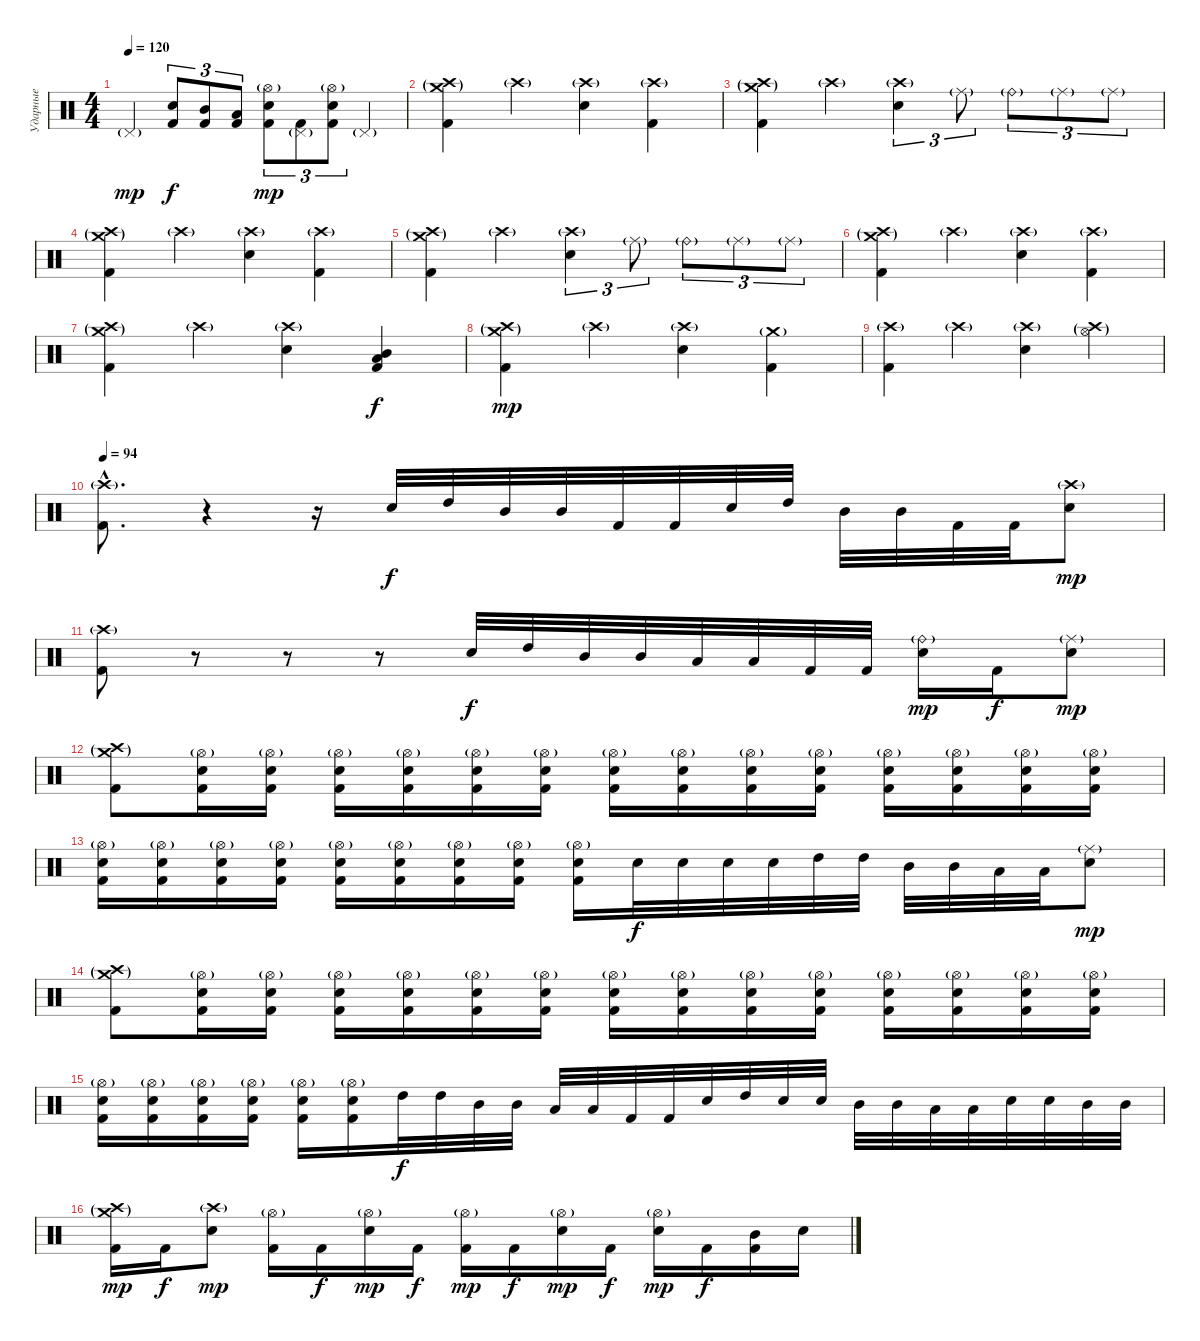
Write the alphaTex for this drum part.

\track ("Ударные" "Ударные") {instrument percussion}
\staff {score}
\articulation defaults
\ts (4 4)
\tempo 120
\clef neutral
\ks c "Pedal Hi-Hat (hit)"{g}.4{dy mp}
("Electric Snare (hit)" "Kick (hit) 2").8{tu (3 2) dy f} ("Mid Tom (hit)" "Kick (hit) 2").8{tu (3 2)} ("Low Tom (hit)" "Kick (hit) 2").8{tu (3 2)} ("Hi-Hat (open)"{g} "Electric Snare (hit)" "Kick (hit) 2").8{tu (3 2) dy mp} ("Pedal Hi-Hat (hit)"{g} "Kick (hit) 2").8{tu (3 2)} ("Hi-Hat (open)"{g} "Electric Snare (hit)" "Kick (hit) 2").8{tu (3 2)} "Pedal Hi-Hat (hit)"{g}.4 |
("Crash high (hit)"{g} "Crash medium (hit)"{g} "Kick (hit) 2").4 "Crash high (hit)"{g}.4 ("Crash high (hit)"{g} "Electric Snare (hit)").4 ("Crash high (hit)"{g} "Kick (hit) 2").4 |
("Crash high (hit)"{g} "Crash medium (hit)"{g} "Kick (hit) 2").4 "Crash high (hit)"{g}.4 ("Crash high (hit)"{g} "Electric Snare (hit)").4{tu (3 2)} "Ride (middle)"{g}.8{tu (3 2)} "Ride (bell)"{g}.8{tu (3 2)} "Ride (middle)"{g}.8{tu (3 2)} "Ride (middle)"{g}.8{tu (3 2)} |
("Crash high (hit)"{g} "Crash medium (hit)"{g} "Kick (hit) 2").4 "Crash high (hit)"{g}.4 ("Crash high (hit)"{g} "Electric Snare (hit)").4 ("Crash high (hit)"{g} "Kick (hit) 2").4 |
("Crash high (hit)"{g} "Crash medium (hit)"{g} "Kick (hit) 2").4 "Crash high (hit)"{g}.4 ("Crash high (hit)"{g} "Electric Snare (hit)").4{tu (3 2)} "Ride (middle)"{g}.8{tu (3 2)} "Ride (bell)"{g}.8{tu (3 2)} "Ride (middle)"{g}.8{tu (3 2)} "Ride (middle)"{g}.8{tu (3 2)} |
("Crash high (hit)"{g} "Crash medium (hit)"{g} "Kick (hit) 2").4 "Crash high (hit)"{g}.4 ("Crash high (hit)"{g} "Electric Snare (hit)").4 ("Crash high (hit)"{g} "Kick (hit) 2").4 |
("Crash high (hit)"{g} "Crash medium (hit)"{g} "Kick (hit) 2").4 "Crash high (hit)"{g}.4 ("Crash high (hit)"{g} "Electric Snare (hit)").4 ("Low Tom (hit)" "Mid Tom (hit)" "Kick (hit) 2").4{dy f} |
("Crash high (hit)"{g} "Crash medium (hit)"{g} "Kick (hit) 2").4{dy mp} "Crash high (hit)"{g}.4 ("Crash high (hit)"{g} "Electric Snare (hit)").4 ("Crash medium (hit)"{g} "Kick (hit) 2").4 |
("Crash high (hit)"{g} "Kick (hit) 2").4 "Crash high (hit)"{g}.4 ("Crash high (hit)"{g} "Electric Snare (hit)").4 ("Crash high (hit)"{g} "Hi-Hat (open)"{g}).4 |
\tempo 94
("Crash high (hit)"{g hac} "Kick (hit) 2"{hac}).8{d} r.4{volume 0} r.16 "Electric Snare (hit)".32{dy f volume 16} "High Tom (hit)".32 "Mid Tom (hit)".32 "Mid Tom (hit)".32 "Kick (hit) 2".32 "Kick (hit) 2".32 "Electric Snare (hit)".32 "High Tom (hit)".32 "Mid Tom (hit)".32 "Mid Tom (hit)".32 "Kick (hit) 2".32 "Kick (hit) 2".32 ("Crash high (hit)"{g} "Electric Snare (hit)").8{dy mp} |
("Crash high (hit)"{g} "Kick (hit) 2").8 r.8{volume 0} r.8 r.8 "Electric Snare (hit)".32{dy f volume 16} "High Tom (hit)".32 "Mid Tom (hit)".32 "Mid Tom (hit)".32 "Low Tom (hit)".32 "Low Tom (hit)".32 "Kick (hit) 2".32 "Kick (hit) 2".32 ("Ride (bell)"{g} "Electric Snare (hit)").16{dy mp} "Kick (hit) 2".16{dy f} ("Ride (middle)"{g} "Electric Snare (hit)").8{dy mp} |
("Crash high (hit)"{g} "Crash medium (hit)"{g} "Kick (hit) 2").8 ("Hi-Hat (open)"{g} "Electric Snare (hit)" "Kick (hit) 2").16 ("Hi-Hat (open)"{g} "Electric Snare (hit)" "Kick (hit) 2").16 ("Hi-Hat (open)"{g} "Electric Snare (hit)" "Kick (hit) 2").16 ("Hi-Hat (open)"{g} "Electric Snare (hit)" "Kick (hit) 2").16 ("Hi-Hat (open)"{g} "Electric Snare (hit)" "Kick (hit) 2").16 ("Hi-Hat (open)"{g} "Electric Snare (hit)" "Kick (hit) 2").16 ("Hi-Hat (open)"{g} "Electric Snare (hit)" "Kick (hit) 2").16 ("Hi-Hat (open)"{g} "Electric Snare (hit)" "Kick (hit) 2").16 ("Hi-Hat (open)"{g} "Electric Snare (hit)" "Kick (hit) 2").16 ("Hi-Hat (open)"{g} "Electric Snare (hit)" "Kick (hit) 2").16 ("Hi-Hat (open)"{g} "Electric Snare (hit)" "Kick (hit) 2").16 ("Hi-Hat (open)"{g} "Electric Snare (hit)" "Kick (hit) 2").16 ("Hi-Hat (open)"{g} "Electric Snare (hit)" "Kick (hit) 2").16 ("Hi-Hat (open)"{g} "Electric Snare (hit)" "Kick (hit) 2").16 |
("Hi-Hat (open)"{g} "Electric Snare (hit)" "Kick (hit) 2").16 ("Hi-Hat (open)"{g} "Electric Snare (hit)" "Kick (hit) 2").16 ("Hi-Hat (open)"{g} "Electric Snare (hit)" "Kick (hit) 2").16 ("Hi-Hat (open)"{g} "Electric Snare (hit)" "Kick (hit) 2").16 ("Hi-Hat (open)"{g} "Electric Snare (hit)" "Kick (hit) 2").16 ("Hi-Hat (open)"{g} "Electric Snare (hit)" "Kick (hit) 2").16 ("Hi-Hat (open)"{g} "Electric Snare (hit)" "Kick (hit) 2").16 ("Hi-Hat (open)"{g} "Electric Snare (hit)" "Kick (hit) 2").16 ("Hi-Hat (open)"{g} "Electric Snare (hit)" "Kick (hit) 2").16 "Electric Snare (hit)".32{dy f} "Electric Snare (hit)".32 "Electric Snare (hit)".32 "Electric Snare (hit)".32 "High Tom (hit)".32 "High Tom (hit)".32 "Mid Tom (hit)".32 "Mid Tom (hit)".32 "Low Tom (hit)".32 "Low Tom (hit)".32 ("Ride (middle)"{g} "Electric Snare (hit)").8{dy mp} |
("Crash high (hit)"{g} "Crash medium (hit)"{g} "Kick (hit) 2").8 ("Hi-Hat (open)"{g} "Electric Snare (hit)" "Kick (hit) 2").16 ("Hi-Hat (open)"{g} "Electric Snare (hit)" "Kick (hit) 2").16 ("Hi-Hat (open)"{g} "Electric Snare (hit)" "Kick (hit) 2").16 ("Hi-Hat (open)"{g} "Electric Snare (hit)" "Kick (hit) 2").16 ("Hi-Hat (open)"{g} "Electric Snare (hit)" "Kick (hit) 2").16 ("Hi-Hat (open)"{g} "Electric Snare (hit)" "Kick (hit) 2").16 ("Hi-Hat (open)"{g} "Electric Snare (hit)" "Kick (hit) 2").16 ("Hi-Hat (open)"{g} "Electric Snare (hit)" "Kick (hit) 2").16 ("Hi-Hat (open)"{g} "Electric Snare (hit)" "Kick (hit) 2").16 ("Hi-Hat (open)"{g} "Electric Snare (hit)" "Kick (hit) 2").16 ("Hi-Hat (open)"{g} "Electric Snare (hit)" "Kick (hit) 2").16 ("Hi-Hat (open)"{g} "Electric Snare (hit)" "Kick (hit) 2").16 ("Hi-Hat (open)"{g} "Electric Snare (hit)" "Kick (hit) 2").16 ("Hi-Hat (open)"{g} "Electric Snare (hit)" "Kick (hit) 2").16 |
("Hi-Hat (open)"{g} "Electric Snare (hit)" "Kick (hit) 2").16 ("Hi-Hat (open)"{g} "Electric Snare (hit)" "Kick (hit) 2").16 ("Hi-Hat (open)"{g} "Electric Snare (hit)" "Kick (hit) 2").16 ("Hi-Hat (open)"{g} "Electric Snare (hit)" "Kick (hit) 2").16 ("Hi-Hat (open)"{g} "Electric Snare (hit)" "Kick (hit) 2").16 ("Hi-Hat (open)"{g} "Electric Snare (hit)" "Kick (hit) 2").16 "High Tom (hit)".32{dy f} "High Tom (hit)".32 "Mid Tom (hit)".32 "Mid Tom (hit)".32 "Low Tom (hit)".32 "Low Tom (hit)".32 "Kick (hit) 2".32 "Kick (hit) 2".32 "Electric Snare (hit)".32 "High Tom (hit)".32 "Electric Snare (hit)".32 "Electric Snare (hit)".32 "Mid Tom (hit)".32 "Mid Tom (hit)".32 "Low Tom (hit)".32 "Low Tom (hit)".32 "Electric Snare (hit)".32 "Electric Snare (hit)".32 "Mid Tom (hit)".32 "Mid Tom (hit)".32 |
("Crash high (hit)"{g} "Crash medium (hit)"{g} "Kick (hit) 2").16{dy mp} "Kick (hit) 2".16{dy f} ("Crash high (hit)"{g} "Electric Snare (hit)").8{dy mp} ("Hi-Hat (open)"{g} "Kick (hit) 2").16 "Kick (hit) 2".16{dy f} ("Hi-Hat (open)"{g} "Electric Snare (hit)").16{dy mp} "Kick (hit) 2".16{dy f} ("Hi-Hat (open)"{g} "Kick (hit) 2").16{dy mp} "Kick (hit) 2".16{dy f} ("Hi-Hat (open)"{g} "Electric Snare (hit)").16{dy mp} "Kick (hit) 2".16{dy f} ("Hi-Hat (open)"{g} "Electric Snare (hit)").16{dy mp} "Kick (hit) 2".16{dy f} ("Mid Tom (hit)" "Kick (hit) 2").16 "Electric Snare (hit)".16
